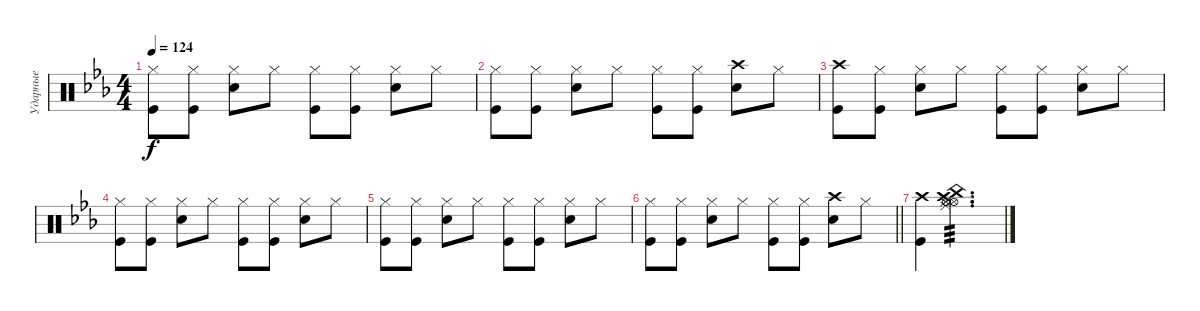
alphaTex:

\track ("Ударные" "Ударные") {instrument percussion}
\staff {score}
\articulation defaults
\ts (4 4)
\tempo 124
\clef neutral
\ks cminor
("Hi-Hat (closed)" "Kick (hit)").8{dy f} ("Hi-Hat (closed)" "Kick (hit)").8 ("Hi-Hat (closed)" "Snare (hit) 2").8 "Hi-Hat (closed)".8 ("Hi-Hat (closed)" "Kick (hit)").8 ("Kick (hit)" "Hi-Hat (closed)").8 ("Hi-Hat (closed)" "Snare (hit) 2").8 "Hi-Hat (closed)".8 |
("Hi-Hat (closed)" "Kick (hit)").8 ("Hi-Hat (closed)" "Kick (hit)").8 ("Hi-Hat (closed)" "Snare (hit) 2").8 "Hi-Hat (closed)".8 ("Hi-Hat (closed)" "Kick (hit)").8 ("Kick (hit)" "Hi-Hat (closed)").8 ("Snare (hit) 2" "Crash high (hit)").8 "Hi-Hat (closed)".8 |
("Crash high (hit)" "Kick (hit)").8 ("Kick (hit)" "Hi-Hat (closed)").8 ("Hi-Hat (closed)" "Snare (hit) 2").8 "Hi-Hat (closed)".8 ("Hi-Hat (closed)" "Kick (hit)").8 ("Kick (hit)" "Hi-Hat (closed)").8 ("Hi-Hat (closed)" "Snare (hit) 2").8 "Hi-Hat (closed)".8 |
("Hi-Hat (closed)" "Kick (hit)").8 ("Hi-Hat (closed)" "Kick (hit)").8 ("Hi-Hat (closed)" "Snare (hit) 2").8 "Hi-Hat (closed)".8 ("Hi-Hat (closed)" "Kick (hit)").8 ("Kick (hit)" "Hi-Hat (closed)").8 ("Hi-Hat (closed)" "Snare (hit) 2").8 "Hi-Hat (closed)".8 |
("Hi-Hat (closed)" "Kick (hit)").8 ("Hi-Hat (closed)" "Kick (hit)").8 ("Hi-Hat (closed)" "Snare (hit) 2").8 "Hi-Hat (closed)".8 ("Hi-Hat (closed)" "Kick (hit)").8 ("Kick (hit)" "Hi-Hat (closed)").8 ("Hi-Hat (closed)" "Snare (hit) 2").8 "Hi-Hat (closed)".8 |
\barLineRight lightlight
("Hi-Hat (closed)" "Kick (hit)").8 ("Hi-Hat (closed)" "Kick (hit)").8 ("Hi-Hat (closed)" "Snare (hit) 2").8 "Hi-Hat (closed)".8 ("Hi-Hat (closed)" "Kick (hit)").8 ("Kick (hit)" "Hi-Hat (closed)").8 ("Snare (hit) 2" "Crash high (hit)").8 "Hi-Hat (closed)".8 |
("Kick (hit)" "Crash high (hit)").4{volume 2} ("Crash high (hit)" "Ride (middle)" "Hi-Hat (open)" "Hi-Hat (open)" "Hi-Hat (closed)" "China (hit)").2{d tp 3}
